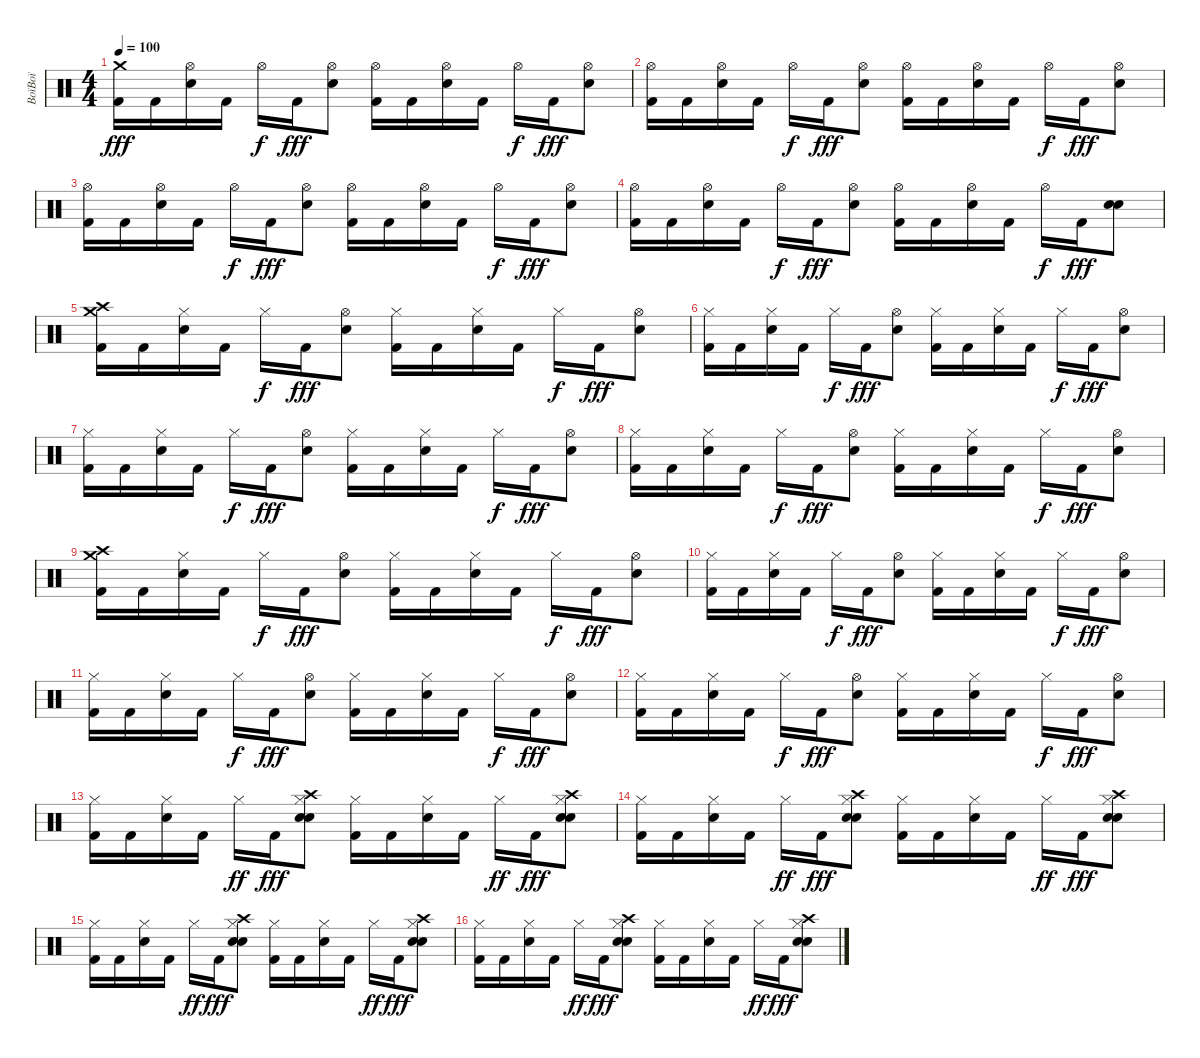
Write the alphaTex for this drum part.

\track ("BoïBoï" "BoïBoï") {instrument percussion}
\staff {score}
\articulation defaults
\ts (4 4)
\tempo 100
\clef neutral
\ks c
("Crash medium (hit)" "Kick (hit) 2").16{dy fff} "Kick (hit) 2".16 ("Hi-Hat (open)" "Electric Snare (hit)").16 "Kick (hit) 2".16 "Hi-Hat (open)".16{dy f} "Kick (hit) 2".16{dy fff} ("Hi-Hat (open)" "Electric Snare (hit)").8 ("Hi-Hat (open)" "Kick (hit) 2").16 "Kick (hit) 2".16 ("Hi-Hat (open)" "Electric Snare (hit)").16 "Kick (hit) 2".16 "Hi-Hat (open)".16{dy f} "Kick (hit) 2".16{dy fff} ("Hi-Hat (open)" "Electric Snare (hit)").8 |
("Hi-Hat (open)" "Kick (hit) 2").16 "Kick (hit) 2".16 ("Hi-Hat (open)" "Electric Snare (hit)").16 "Kick (hit) 2".16 "Hi-Hat (open)".16{dy f} "Kick (hit) 2".16{dy fff} ("Hi-Hat (open)" "Electric Snare (hit)").8 ("Hi-Hat (open)" "Kick (hit) 2").16 "Kick (hit) 2".16 ("Hi-Hat (open)" "Electric Snare (hit)").16 "Kick (hit) 2".16 "Hi-Hat (open)".16{dy f} "Kick (hit) 2".16{dy fff} ("Hi-Hat (open)" "Electric Snare (hit)").8 |
("Hi-Hat (open)" "Kick (hit) 2").16 "Kick (hit) 2".16 ("Hi-Hat (open)" "Electric Snare (hit)").16 "Kick (hit) 2".16 "Hi-Hat (open)".16{dy f} "Kick (hit) 2".16{dy fff} ("Hi-Hat (open)" "Electric Snare (hit)").8 ("Hi-Hat (open)" "Kick (hit) 2").16 "Kick (hit) 2".16 ("Hi-Hat (open)" "Electric Snare (hit)").16 "Kick (hit) 2".16 "Hi-Hat (open)".16{dy f} "Kick (hit) 2".16{dy fff} ("Hi-Hat (open)" "Electric Snare (hit)").8 |
("Hi-Hat (open)" "Kick (hit) 2").16 "Kick (hit) 2".16 ("Hi-Hat (open)" "Electric Snare (hit)").16 "Kick (hit) 2".16 "Hi-Hat (open)".16{dy f} "Kick (hit) 2".16{dy fff} ("Hi-Hat (open)" "Electric Snare (hit)").8 ("Hi-Hat (open)" "Kick (hit) 2").16 "Kick (hit) 2".16 ("Hi-Hat (open)" "Electric Snare (hit)").16 "Kick (hit) 2".16 "Hi-Hat (open)".16{dy f} "Kick (hit) 2".16{dy fff} ("Electric Snare (hit)" "Snare (hit) 2").8 |
("Crash medium (hit)" "Crash high (hit)" "Kick (hit) 2").16 "Kick (hit) 2".16 ("Hi-Hat (closed)" "Electric Snare (hit)").16 "Kick (hit) 2".16 "Hi-Hat (closed)".16{dy f} "Kick (hit) 2".16{dy fff} ("Hi-Hat (open)" "Electric Snare (hit)").8 ("Hi-Hat (closed)" "Kick (hit) 2").16 "Kick (hit) 2".16 ("Hi-Hat (closed)" "Electric Snare (hit)").16 "Kick (hit) 2".16 "Hi-Hat (closed)".16{dy f} "Kick (hit) 2".16{dy fff} ("Hi-Hat (open)" "Electric Snare (hit)").8 |
("Hi-Hat (closed)" "Kick (hit) 2").16 "Kick (hit) 2".16 ("Hi-Hat (closed)" "Electric Snare (hit)").16 "Kick (hit) 2".16 "Hi-Hat (closed)".16{dy f} "Kick (hit) 2".16{dy fff} ("Hi-Hat (open)" "Electric Snare (hit)").8 ("Hi-Hat (closed)" "Kick (hit) 2").16 "Kick (hit) 2".16 ("Hi-Hat (closed)" "Electric Snare (hit)").16 "Kick (hit) 2".16 "Hi-Hat (closed)".16{dy f} "Kick (hit) 2".16{dy fff} ("Hi-Hat (open)" "Electric Snare (hit)").8 |
("Hi-Hat (closed)" "Kick (hit) 2").16 "Kick (hit) 2".16 ("Hi-Hat (closed)" "Electric Snare (hit)").16 "Kick (hit) 2".16 "Hi-Hat (closed)".16{dy f} "Kick (hit) 2".16{dy fff} ("Hi-Hat (open)" "Electric Snare (hit)").8 ("Hi-Hat (closed)" "Kick (hit) 2").16 "Kick (hit) 2".16 ("Hi-Hat (closed)" "Electric Snare (hit)").16 "Kick (hit) 2".16 "Hi-Hat (closed)".16{dy f} "Kick (hit) 2".16{dy fff} ("Hi-Hat (open)" "Electric Snare (hit)").8 |
("Hi-Hat (closed)" "Kick (hit) 2").16 "Kick (hit) 2".16 ("Hi-Hat (closed)" "Electric Snare (hit)").16 "Kick (hit) 2".16 "Hi-Hat (closed)".16{dy f} "Kick (hit) 2".16{dy fff} ("Hi-Hat (open)" "Electric Snare (hit)").8 ("Hi-Hat (closed)" "Kick (hit) 2").16 "Kick (hit) 2".16 ("Hi-Hat (closed)" "Electric Snare (hit)").16 "Kick (hit) 2".16 "Hi-Hat (closed)".16{dy f} "Kick (hit) 2".16{dy fff} ("Hi-Hat (open)" "Electric Snare (hit)").8 |
("Crash medium (hit)" "Crash high (hit)" "Kick (hit) 2").16 "Kick (hit) 2".16 ("Hi-Hat (closed)" "Electric Snare (hit)").16 "Kick (hit) 2".16 "Hi-Hat (closed)".16{dy f} "Kick (hit) 2".16{dy fff} ("Hi-Hat (open)" "Electric Snare (hit)").8 ("Hi-Hat (closed)" "Kick (hit) 2").16 "Kick (hit) 2".16 ("Hi-Hat (closed)" "Electric Snare (hit)").16 "Kick (hit) 2".16 "Hi-Hat (closed)".16{dy f} "Kick (hit) 2".16{dy fff} ("Hi-Hat (open)" "Electric Snare (hit)").8 |
("Hi-Hat (closed)" "Kick (hit) 2").16 "Kick (hit) 2".16 ("Hi-Hat (closed)" "Electric Snare (hit)").16 "Kick (hit) 2".16 "Hi-Hat (closed)".16{dy f} "Kick (hit) 2".16{dy fff} ("Hi-Hat (open)" "Electric Snare (hit)").8 ("Hi-Hat (closed)" "Kick (hit) 2").16 "Kick (hit) 2".16 ("Hi-Hat (closed)" "Electric Snare (hit)").16 "Kick (hit) 2".16 "Hi-Hat (closed)".16{dy f} "Kick (hit) 2".16{dy fff} ("Hi-Hat (open)" "Electric Snare (hit)").8 |
("Hi-Hat (closed)" "Kick (hit) 2").16 "Kick (hit) 2".16 ("Hi-Hat (closed)" "Electric Snare (hit)").16 "Kick (hit) 2".16 "Hi-Hat (closed)".16{dy f} "Kick (hit) 2".16{dy fff} ("Hi-Hat (open)" "Electric Snare (hit)").8 ("Hi-Hat (closed)" "Kick (hit) 2").16 "Kick (hit) 2".16 ("Hi-Hat (closed)" "Electric Snare (hit)").16 "Kick (hit) 2".16 "Hi-Hat (closed)".16{dy f} "Kick (hit) 2".16{dy fff} ("Hi-Hat (open)" "Electric Snare (hit)").8 |
("Hi-Hat (closed)" "Kick (hit) 2").16 "Kick (hit) 2".16 ("Hi-Hat (closed)" "Electric Snare (hit)").16 "Kick (hit) 2".16 "Hi-Hat (closed)".16{dy f} "Kick (hit) 2".16{dy fff} ("Hi-Hat (open)" "Electric Snare (hit)").8 ("Hi-Hat (closed)" "Kick (hit) 2").16 "Kick (hit) 2".16 ("Hi-Hat (closed)" "Electric Snare (hit)").16 "Kick (hit) 2".16 "Hi-Hat (closed)".16{dy f} "Kick (hit) 2".16{dy fff} ("Hi-Hat (open)" "Electric Snare (hit)").8 |
("Hi-Hat (closed)" "Kick (hit) 2").16 "Kick (hit) 2".16 ("Hi-Hat (closed)" "Electric Snare (hit)").16 "Kick (hit) 2".16 "Hi-Hat (closed)".16{dy ff} "Kick (hit) 2".16{dy fff} ("Hi-Hat (closed)" "Crash high (hit)" "Electric Snare (hit)" "Snare (hit) 2").8 ("Hi-Hat (closed)" "Kick (hit) 2").16 "Kick (hit) 2".16 ("Hi-Hat (closed)" "Electric Snare (hit)").16 "Kick (hit) 2".16 "Hi-Hat (closed)".16{dy ff} "Kick (hit) 2".16{dy fff} ("Hi-Hat (closed)" "Crash high (hit)" "Electric Snare (hit)" "Snare (hit) 2").8 |
("Hi-Hat (closed)" "Kick (hit) 2").16 "Kick (hit) 2".16 ("Hi-Hat (closed)" "Electric Snare (hit)").16 "Kick (hit) 2".16 "Hi-Hat (closed)".16{dy ff} "Kick (hit) 2".16{dy fff} ("Hi-Hat (closed)" "Crash high (hit)" "Electric Snare (hit)" "Snare (hit) 2").8 ("Hi-Hat (closed)" "Kick (hit) 2").16 "Kick (hit) 2".16 ("Hi-Hat (closed)" "Electric Snare (hit)").16 "Kick (hit) 2".16 "Hi-Hat (closed)".16{dy ff} "Kick (hit) 2".16{dy fff} ("Hi-Hat (closed)" "Crash high (hit)" "Electric Snare (hit)" "Snare (hit) 2").8 |
("Hi-Hat (closed)" "Kick (hit) 2").16 "Kick (hit) 2".16 ("Hi-Hat (closed)" "Electric Snare (hit)").16 "Kick (hit) 2".16 "Hi-Hat (closed)".16{dy ff} "Kick (hit) 2".16{dy fff} ("Hi-Hat (closed)" "Crash high (hit)" "Electric Snare (hit)" "Snare (hit) 2").8 ("Hi-Hat (closed)" "Kick (hit) 2").16 "Kick (hit) 2".16 ("Hi-Hat (closed)" "Electric Snare (hit)").16 "Kick (hit) 2".16 "Hi-Hat (closed)".16{dy ff} "Kick (hit) 2".16{dy fff} ("Hi-Hat (closed)" "Crash high (hit)" "Electric Snare (hit)" "Snare (hit) 2").8 |
("Hi-Hat (closed)" "Kick (hit) 2").16 "Kick (hit) 2".16 ("Hi-Hat (closed)" "Electric Snare (hit)").16 "Kick (hit) 2".16 "Hi-Hat (closed)".16{dy ff} "Kick (hit) 2".16{dy fff} ("Hi-Hat (closed)" "Crash high (hit)" "Electric Snare (hit)" "Snare (hit) 2").8 ("Hi-Hat (closed)" "Kick (hit) 2").16 "Kick (hit) 2".16 ("Hi-Hat (closed)" "Electric Snare (hit)").16 "Kick (hit) 2".16 "Hi-Hat (closed)".16{dy ff} "Kick (hit) 2".16{dy fff} ("Hi-Hat (closed)" "Crash high (hit)" "Electric Snare (hit)" "Snare (hit) 2").8
